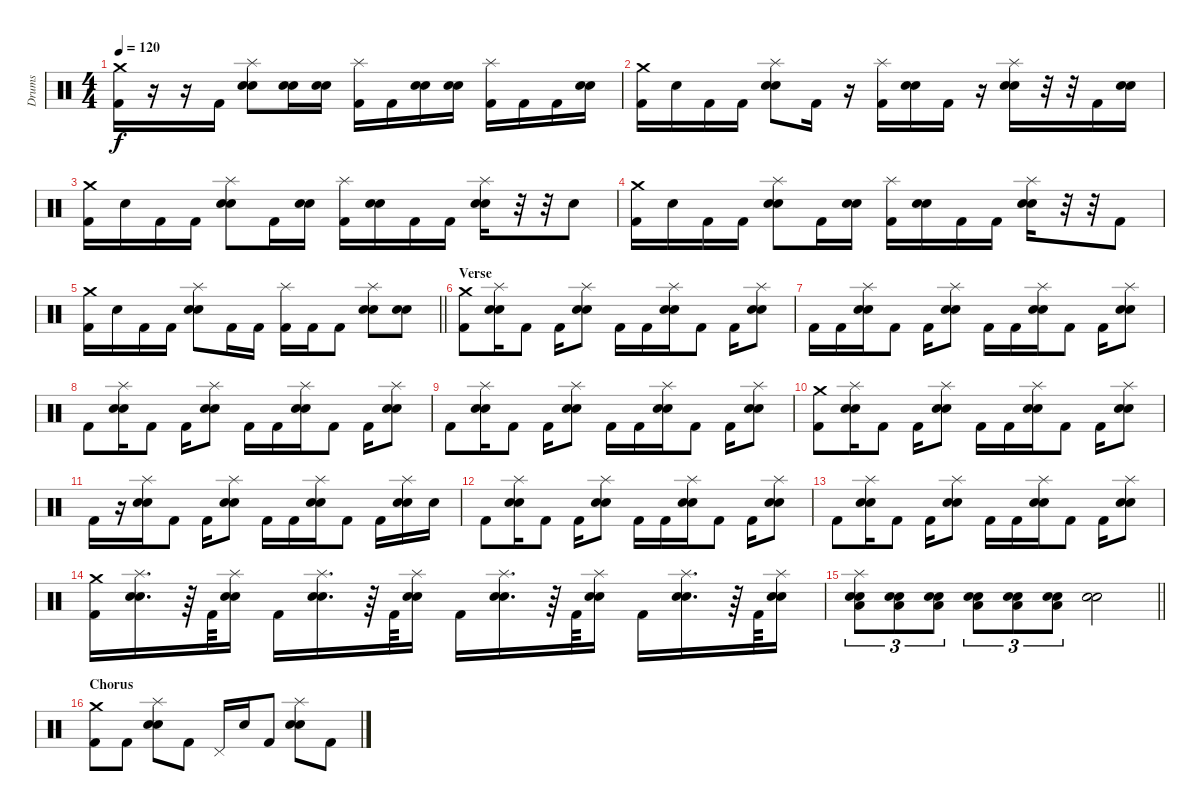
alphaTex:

\track ("Drums" "Drums") {instrument percussion}
\staff {score}
\articulation defaults
\ts (4 4)
\tempo 120
\clef neutral
\ks c
("Crash medium (hit)" "Kick (hit) 2").16{dy f} r.16 r.16 "Kick (hit) 2".16 ("Splash (hit)" "Electric Snare (hit)" "Snare (hit) 2").8 ("Electric Snare (hit)" "Snare (hit) 2").16 ("Electric Snare (hit)" "Snare (hit) 2").16 ("Splash (hit)" "Kick (hit) 2").16 "Kick (hit) 2".16 ("Electric Snare (hit)" "Snare (hit) 2").16 ("Electric Snare (hit)" "Snare (hit) 2").16 ("Splash (hit)" "Kick (hit) 2").16 "Kick (hit) 2".16 "Kick (hit) 2".16 ("Electric Snare (hit)" "Snare (hit) 2").16 |
("Crash medium (hit)" "Kick (hit) 2").16 "Electric Snare (hit)".16 "Kick (hit) 2".16 "Kick (hit) 2".16 ("Splash (hit)" "Electric Snare (hit)" "Snare (hit) 2").8 "Kick (hit) 2".16 r.16 ("Splash (hit)" "Kick (hit) 2").16 ("Electric Snare (hit)" "Snare (hit) 2").16 "Kick (hit) 2".16 r.16 ("Splash (hit)" "Electric Snare (hit)" "Snare (hit) 2").16 r.32 r.32 "Kick (hit) 2".16 ("Electric Snare (hit)" "Snare (hit) 2").16 |
("Crash medium (hit)" "Kick (hit) 2").16 "Electric Snare (hit)".16 "Kick (hit) 2".16 "Kick (hit) 2".16 ("Splash (hit)" "Electric Snare (hit)" "Snare (hit) 2").8 "Kick (hit) 2".16 ("Electric Snare (hit)" "Snare (hit) 2").16 ("Splash (hit)" "Kick (hit) 2").16 ("Electric Snare (hit)" "Snare (hit) 2").16 "Kick (hit) 2".16 "Kick (hit) 2".16 ("Splash (hit)" "Electric Snare (hit)" "Snare (hit) 2").16 r.32 r.32 "Electric Snare (hit)".8 |
("Crash medium (hit)" "Kick (hit) 2").16 "Electric Snare (hit)".16 "Kick (hit) 2".16 "Kick (hit) 2".16 ("Splash (hit)" "Electric Snare (hit)" "Snare (hit) 2").8 "Kick (hit) 2".16 ("Electric Snare (hit)" "Snare (hit) 2").16 ("Splash (hit)" "Kick (hit) 2").16 ("Electric Snare (hit)" "Snare (hit) 2").16 "Kick (hit) 2".16 "Kick (hit) 2".16 ("Splash (hit)" "Electric Snare (hit)" "Snare (hit) 2").16 r.32 r.32 "Kick (hit) 2".8 |
\barLineRight lightlight
("Crash medium (hit)" "Kick (hit) 2").16 "Electric Snare (hit)".16 "Kick (hit) 2".16 "Kick (hit) 2".16 ("Splash (hit)" "Electric Snare (hit)" "Snare (hit) 2").8 "Kick (hit) 2".16 "Kick (hit) 2".16 ("Splash (hit)" "Kick (hit) 2").16 "Kick (hit) 2".16 "Kick (hit) 2".8 ("Splash (hit)" "Electric Snare (hit)" "Snare (hit) 2").8 ("Electric Snare (hit)" "Snare (hit) 2").8 |
\section ("" "Verse")
("Crash medium (hit)" "Kick (hit) 2").8 ("Splash (hit)" "Electric Snare (hit)" "Snare (hit) 2").16 "Kick (hit) 2".8 "Kick (hit) 2".16 ("Splash (hit)" "Electric Snare (hit)" "Snare (hit) 2").8 "Kick (hit) 2".16 "Kick (hit) 2".16 ("Splash (hit)" "Electric Snare (hit)" "Snare (hit) 2").16 "Kick (hit) 2".8 "Kick (hit) 2".16 ("Splash (hit)" "Electric Snare (hit)" "Snare (hit) 2").8 |
"Kick (hit) 2".16 "Kick (hit) 2".16 ("Splash (hit)" "Electric Snare (hit)" "Snare (hit) 2").16 "Kick (hit) 2".8 "Kick (hit) 2".16 ("Splash (hit)" "Electric Snare (hit)" "Snare (hit) 2").8 "Kick (hit) 2".16 "Kick (hit) 2".16 ("Splash (hit)" "Electric Snare (hit)" "Snare (hit) 2").16 "Kick (hit) 2".8 "Kick (hit) 2".16 ("Splash (hit)" "Electric Snare (hit)" "Snare (hit) 2").8 |
"Kick (hit) 2".8 ("Splash (hit)" "Electric Snare (hit)" "Snare (hit) 2").16 "Kick (hit) 2".8 "Kick (hit) 2".16 ("Splash (hit)" "Electric Snare (hit)" "Snare (hit) 2").8 "Kick (hit) 2".16 "Kick (hit) 2".16 ("Splash (hit)" "Electric Snare (hit)" "Snare (hit) 2").16 "Kick (hit) 2".8 "Kick (hit) 2".16 ("Splash (hit)" "Electric Snare (hit)" "Snare (hit) 2").8 |
"Kick (hit) 2".8 ("Splash (hit)" "Electric Snare (hit)" "Snare (hit) 2").16 "Kick (hit) 2".8 "Kick (hit) 2".16 ("Splash (hit)" "Electric Snare (hit)" "Snare (hit) 2").8 "Kick (hit) 2".16 "Kick (hit) 2".16 ("Splash (hit)" "Electric Snare (hit)" "Snare (hit) 2").16 "Kick (hit) 2".8 "Kick (hit) 2".16 ("Splash (hit)" "Electric Snare (hit)" "Snare (hit) 2").8 |
("Crash medium (hit)" "Kick (hit) 2").8 ("Splash (hit)" "Electric Snare (hit)" "Snare (hit) 2").16 "Kick (hit) 2".8 "Kick (hit) 2".16 ("Splash (hit)" "Electric Snare (hit)" "Snare (hit) 2").8 "Kick (hit) 2".16 "Kick (hit) 2".16 ("Splash (hit)" "Electric Snare (hit)" "Snare (hit) 2").16 "Kick (hit) 2".8 "Kick (hit) 2".16 ("Splash (hit)" "Electric Snare (hit)" "Snare (hit) 2").8 |
"Kick (hit) 2".16 r.16 ("Splash (hit)" "Electric Snare (hit)" "Snare (hit) 2").16 "Kick (hit) 2".8 "Kick (hit) 2".16 ("Splash (hit)" "Electric Snare (hit)" "Snare (hit) 2").8 "Kick (hit) 2".16 "Kick (hit) 2".16 ("Splash (hit)" "Electric Snare (hit)" "Snare (hit) 2").16 "Kick (hit) 2".8 "Kick (hit) 2".16 ("Splash (hit)" "Electric Snare (hit)" "Snare (hit) 2").16 "Electric Snare (hit)".16 |
"Kick (hit) 2".8 ("Splash (hit)" "Electric Snare (hit)" "Snare (hit) 2").16 "Kick (hit) 2".8 "Kick (hit) 2".16 ("Splash (hit)" "Electric Snare (hit)" "Snare (hit) 2").8 "Kick (hit) 2".16 "Kick (hit) 2".16 ("Splash (hit)" "Electric Snare (hit)" "Snare (hit) 2").16 "Kick (hit) 2".8 "Kick (hit) 2".16 ("Splash (hit)" "Electric Snare (hit)" "Snare (hit) 2").8 |
"Kick (hit) 2".8 ("Splash (hit)" "Electric Snare (hit)" "Snare (hit) 2").16 "Kick (hit) 2".8 "Kick (hit) 2".16 ("Splash (hit)" "Electric Snare (hit)" "Snare (hit) 2").8 "Kick (hit) 2".16 "Kick (hit) 2".16 ("Splash (hit)" "Electric Snare (hit)" "Snare (hit) 2").16 "Kick (hit) 2".8 "Kick (hit) 2".16 ("Splash (hit)" "Electric Snare (hit)" "Snare (hit) 2").8 |
("Crash medium (hit)" "Kick (hit) 2").16 ("Splash (hit)" "Electric Snare (hit)" "Snare (hit) 2").16{d} r.64 "Kick (hit) 2".64 ("Splash (hit)" "Electric Snare (hit)" "Snare (hit) 2").16 "Kick (hit) 2".16 ("Splash (hit)" "Electric Snare (hit)" "Snare (hit) 2").16{d} r.64 "Kick (hit) 2".64 ("Splash (hit)" "Electric Snare (hit)" "Snare (hit) 2").16 "Kick (hit) 2".16 ("Splash (hit)" "Electric Snare (hit)" "Snare (hit) 2").16{d} r.64 "Kick (hit) 2".64 ("Splash (hit)" "Electric Snare (hit)" "Snare (hit) 2").16 "Kick (hit) 2".16 ("Splash (hit)" "Electric Snare (hit)" "Snare (hit) 2").16{d} r.64 "Kick (hit) 2".64 ("Splash (hit)" "Electric Snare (hit)" "Snare (hit) 2").16 |
\barLineRight lightlight
("Splash (hit)" "Electric Snare (hit)" "Low Tom (hit)" "Snare (hit) 2").8{tu (3 2)} ("Electric Snare (hit)" "Low Tom (hit)" "Snare (hit) 2").8{tu (3 2)} ("Electric Snare (hit)" "Low Tom (hit)" "Snare (hit) 2").8{tu (3 2)} ("Electric Snare (hit)" "Low Tom (hit)" "Snare (hit) 2").8{tu (3 2)} ("Electric Snare (hit)" "Low Tom (hit)" "Snare (hit) 2").8{tu (3 2)} ("Electric Snare (hit)" "Low Tom (hit)" "Snare (hit) 2").8{tu (3 2)} ("Electric Snare (hit)" "Snare (hit) 2").2 |
\section ("" "Chorus")
("Crash medium (hit)" "Kick (hit) 2").8 "Kick (hit) 2".8 ("Splash (hit)" "Electric Snare (hit)" "Snare (hit) 2").8 "Kick (hit) 2".8 "Pedal Hi-Hat (hit)".16 "Electric Snare (hit)".16 "Kick (hit) 2".8 ("Splash (hit)" "Electric Snare (hit)" "Snare (hit) 2").8 "Kick (hit) 2".8
